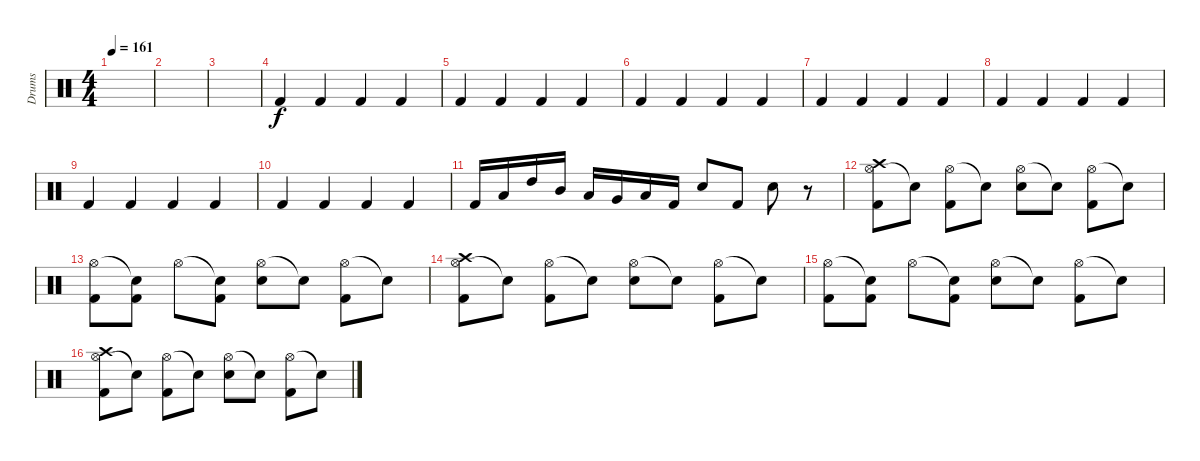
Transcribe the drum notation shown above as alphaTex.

\track ("Drums" "Drums") {instrument percussion}
\staff {score}
\articulation defaults
\ts (4 4)
\tempo 161
\clef neutral
\ks c
|
|
|
"Kick (hit) 2".4 "Kick (hit) 2".4 "Kick (hit) 2".4 "Kick (hit) 2".4 |
"Kick (hit) 2".4 "Kick (hit) 2".4 "Kick (hit) 2".4 "Kick (hit) 2".4 |
"Kick (hit) 2".4 "Kick (hit) 2".4 "Kick (hit) 2".4 "Kick (hit) 2".4 |
"Kick (hit) 2".4 "Kick (hit) 2".4 "Kick (hit) 2".4 "Kick (hit) 2".4 |
"Kick (hit) 2".4 "Kick (hit) 2".4 "Kick (hit) 2".4 "Kick (hit) 2".4 |
"Kick (hit) 2".4 "Kick (hit) 2".4 "Kick (hit) 2".4 "Kick (hit) 2".4 |
"Kick (hit) 2".4 "Kick (hit) 2".4 "Kick (hit) 2".4 "Kick (hit) 2".4 |
"Kick (hit) 2".16 "Low Tom (hit)".16 "High Tom (hit)".16 "Mid Tom (hit)".16 "Low Tom (hit)".16 "Very Low Tom (hit)".16 "Low Floor Tom (hit)".16 "Kick (hit) 2".16 "Electric Snare (hit)".8 "Kick (hit) 2".8 "Electric Snare (hit)".8 r.8 |
("Hi-Hat (open)" "Kick (hit) 2" "Crash high (hit)").8 "Snare (hit)"{t}.8 ("Hi-Hat (open)" "Kick (hit) 2").8 "Snare (hit)"{t}.8 ("Hi-Hat (open)" "Electric Snare (hit)").8 "Snare (hit)"{t}.8 ("Hi-Hat (open)" "Kick (hit) 2").8 "Snare (hit)"{t}.8 |
("Hi-Hat (open)" "Kick (hit) 2").8 ("Snare (hit)"{t} "Kick (hit) 2").8 "Hi-Hat (open)".8 ("Snare (hit)"{t} "Kick (hit) 2").8 ("Hi-Hat (open)" "Electric Snare (hit)").8 "Snare (hit)"{t}.8 ("Hi-Hat (open)" "Kick (hit) 2").8 "Snare (hit)"{t}.8 |
("Hi-Hat (open)" "Kick (hit) 2" "Crash high (hit)").8 "Snare (hit)"{t}.8 ("Hi-Hat (open)" "Kick (hit) 2").8 "Snare (hit)"{t}.8 ("Hi-Hat (open)" "Electric Snare (hit)").8 "Snare (hit)"{t}.8 ("Hi-Hat (open)" "Kick (hit) 2").8 "Snare (hit)"{t}.8 |
("Hi-Hat (open)" "Kick (hit) 2").8 ("Snare (hit)"{t} "Kick (hit) 2").8 "Hi-Hat (open)".8 ("Snare (hit)"{t} "Kick (hit) 2").8 ("Hi-Hat (open)" "Electric Snare (hit)").8 "Snare (hit)"{t}.8 ("Hi-Hat (open)" "Kick (hit) 2").8 "Snare (hit)"{t}.8 |
("Hi-Hat (open)" "Kick (hit) 2" "Crash high (hit)").8 "Snare (hit)"{t}.8 ("Hi-Hat (open)" "Kick (hit) 2").8 "Snare (hit)"{t}.8 ("Hi-Hat (open)" "Electric Snare (hit)").8 "Snare (hit)"{t}.8 ("Hi-Hat (open)" "Kick (hit) 2").8 "Snare (hit)"{t}.8
